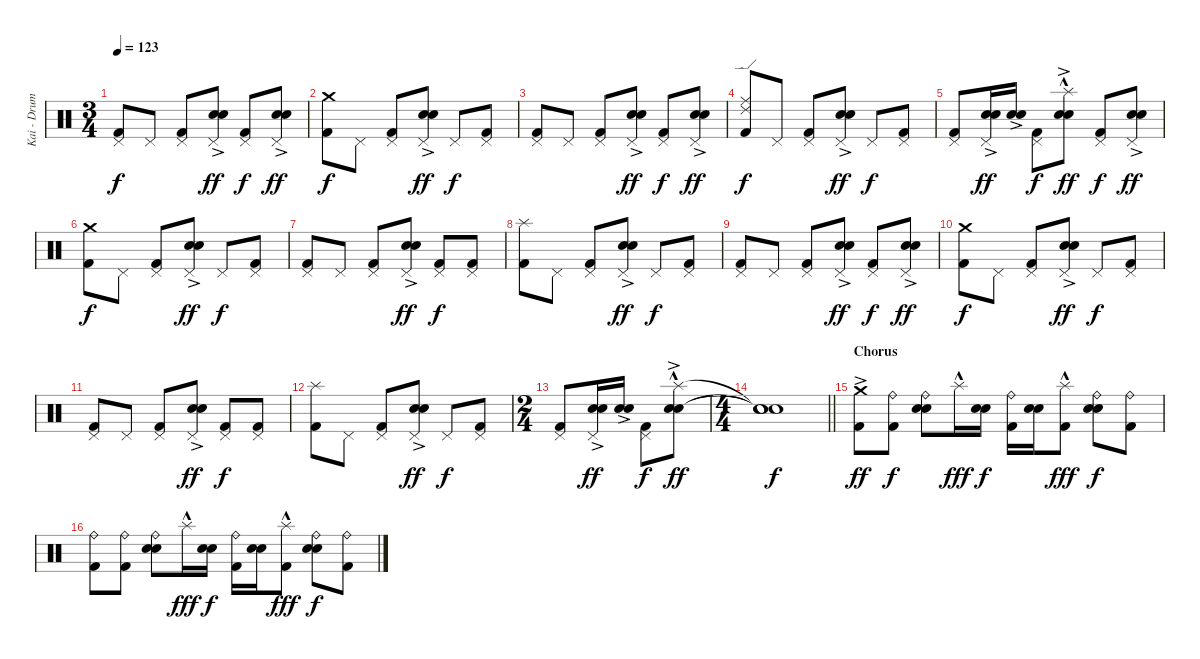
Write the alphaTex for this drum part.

\track ("Kai - Drums" "Kai - Drum") {instrument percussion}
\staff {score}
\articulation defaults
\ts (3 4)
\tempo 123
\clef neutral
\ks c
("Pedal Hi-Hat (hit)" "Kick (hit) 2").8{dy f} "Pedal Hi-Hat (hit)".8 ("Pedal Hi-Hat (hit)" "Kick (hit) 2").8 ("Pedal Hi-Hat (hit)" "Electric Snare (hit)"{ac} "Snare (hit) 2").8{dy ff} ("Pedal Hi-Hat (hit)" "Kick (hit) 2").8{dy f} ("Pedal Hi-Hat (hit)" "Electric Snare (hit)"{ac} "Snare (hit) 2").8{dy ff} |
("Crash medium (hit)" "Kick (hit) 2").8{dy f} "Pedal Hi-Hat (hit)".8 ("Pedal Hi-Hat (hit)" "Kick (hit) 2").8 ("Pedal Hi-Hat (hit)" "Electric Snare (hit)"{ac} "Snare (hit) 2").8{dy ff} "Pedal Hi-Hat (hit)".8{dy f} ("Pedal Hi-Hat (hit)" "Kick (hit) 2").8 |
("Pedal Hi-Hat (hit)" "Kick (hit) 2").8 "Pedal Hi-Hat (hit)".8 ("Pedal Hi-Hat (hit)" "Kick (hit) 2").8 ("Pedal Hi-Hat (hit)" "Electric Snare (hit)"{ac} "Snare (hit) 2").8{dy ff} ("Pedal Hi-Hat (hit)" "Kick (hit) 2").8{dy f} ("Pedal Hi-Hat (hit)" "Electric Snare (hit)"{ac} "Snare (hit) 2").8{dy ff} |
("Ride (edge) 2" "Ride (middle)" "Kick (hit) 2").8{dy f} "Pedal Hi-Hat (hit)".8 ("Pedal Hi-Hat (hit)" "Kick (hit) 2").8 ("Pedal Hi-Hat (hit)" "Electric Snare (hit)"{ac} "Snare (hit) 2").8{dy ff} "Pedal Hi-Hat (hit)".8{dy f} ("Pedal Hi-Hat (hit)" "Kick (hit) 2").8 |
("Pedal Hi-Hat (hit)" "Kick (hit) 2").8 ("Pedal Hi-Hat (hit)" "Electric Snare (hit)"{ac} "Snare (hit) 2").16{dy ff} ("Electric Snare (hit)"{ac} "Snare (hit) 2").16 ("Pedal Hi-Hat (hit)" "Kick (hit) 2").8{dy f} ("Splash (hit)"{hac} "Electric Snare (hit)"{ac} "Snare (hit) 2").8{dy ff} ("Pedal Hi-Hat (hit)" "Kick (hit) 2").8{dy f} ("Pedal Hi-Hat (hit)" "Electric Snare (hit)"{ac} "Snare (hit) 2").8{dy ff} |
("Crash medium (hit)" "Kick (hit) 2").8{dy f} "Pedal Hi-Hat (hit)".8 ("Pedal Hi-Hat (hit)" "Kick (hit) 2").8 ("Pedal Hi-Hat (hit)" "Electric Snare (hit)"{ac} "Snare (hit) 2").8{dy ff} "Pedal Hi-Hat (hit)".8{dy f} ("Pedal Hi-Hat (hit)" "Kick (hit) 2").8 |
("Pedal Hi-Hat (hit)" "Kick (hit) 2").8 "Pedal Hi-Hat (hit)".8 ("Pedal Hi-Hat (hit)" "Kick (hit) 2").8 ("Pedal Hi-Hat (hit)" "Electric Snare (hit)"{ac} "Snare (hit) 2").8{dy ff} ("Pedal Hi-Hat (hit)" "Kick (hit) 2").8{dy f} ("Pedal Hi-Hat (hit)" "Kick (hit) 2").8 |
("Splash (hit)" "Kick (hit) 2").8 "Pedal Hi-Hat (hit)".8 ("Pedal Hi-Hat (hit)" "Kick (hit) 2").8 ("Pedal Hi-Hat (hit)" "Electric Snare (hit)"{ac} "Snare (hit) 2").8{dy ff} "Pedal Hi-Hat (hit)".8{dy f} ("Pedal Hi-Hat (hit)" "Kick (hit) 2").8 |
("Pedal Hi-Hat (hit)" "Kick (hit) 2").8 "Pedal Hi-Hat (hit)".8 ("Pedal Hi-Hat (hit)" "Kick (hit) 2").8 ("Pedal Hi-Hat (hit)" "Electric Snare (hit)"{ac} "Snare (hit) 2").8{dy ff} ("Pedal Hi-Hat (hit)" "Kick (hit) 2").8{dy f} ("Pedal Hi-Hat (hit)" "Electric Snare (hit)"{ac} "Snare (hit) 2").8{dy ff} |
("Crash medium (hit)" "Kick (hit) 2").8{dy f} "Pedal Hi-Hat (hit)".8 ("Pedal Hi-Hat (hit)" "Kick (hit) 2").8 ("Pedal Hi-Hat (hit)" "Electric Snare (hit)"{ac} "Snare (hit) 2").8{dy ff} "Pedal Hi-Hat (hit)".8{dy f} ("Pedal Hi-Hat (hit)" "Kick (hit) 2").8 |
("Pedal Hi-Hat (hit)" "Kick (hit) 2").8 "Pedal Hi-Hat (hit)".8 ("Pedal Hi-Hat (hit)" "Kick (hit) 2").8 ("Pedal Hi-Hat (hit)" "Electric Snare (hit)"{ac} "Snare (hit) 2").8{dy ff} ("Pedal Hi-Hat (hit)" "Kick (hit) 2").8{dy f} ("Pedal Hi-Hat (hit)" "Kick (hit) 2").8 |
("Splash (hit)" "Kick (hit) 2").8 "Pedal Hi-Hat (hit)".8 ("Pedal Hi-Hat (hit)" "Kick (hit) 2").8 ("Pedal Hi-Hat (hit)" "Electric Snare (hit)"{ac} "Snare (hit) 2").8{dy ff} "Pedal Hi-Hat (hit)".8{dy f} ("Pedal Hi-Hat (hit)" "Kick (hit) 2").8 |
\ts (2 4)
("Pedal Hi-Hat (hit)" "Kick (hit) 2").8 ("Pedal Hi-Hat (hit)" "Electric Snare (hit)"{ac} "Snare (hit) 2").16{dy ff} ("Electric Snare (hit)"{ac} "Snare (hit) 2").16 ("Pedal Hi-Hat (hit)" "Kick (hit) 2").8{dy f} ("Splash (hit)"{hac} "Electric Snare (hit)"{ac} "Snare (hit) 2").8{dy ff} |
\ts (4 4)
\barLineRight lightlight
("Snare (hit)"{t} "Snare (hit)"{t} "Snare (hit)"{t}).1{dy f} |
\section ("" "Chorus")
("Crash medium (hit)"{ac} "Kick (hit) 2").8{dy ff} ("Ride (bell)" "Kick (hit) 2").8{dy f} ("Ride (bell)" "Electric Snare (hit)" "Snare (hit) 2").8 "Splash (hit)"{hac}.16{dy fff} ("Electric Snare (hit)" "Snare (hit) 2").16{dy f} ("Ride (bell)" "Kick (hit) 2").16 ("Electric Snare (hit)" "Snare (hit) 2").16 ("Splash (hit)"{hac} "Kick (hit) 2").8{dy fff} ("Ride (bell)" "Electric Snare (hit)" "Snare (hit) 2").8{dy f} ("Ride (bell)" "Kick (hit) 2").8 |
("Ride (bell)" "Kick (hit) 2").8 ("Ride (bell)" "Kick (hit) 2").8 ("Ride (bell)" "Electric Snare (hit)" "Snare (hit) 2").8 "Splash (hit)"{hac}.16{dy fff} ("Electric Snare (hit)" "Snare (hit) 2").16{dy f} ("Ride (bell)" "Kick (hit) 2").16 ("Electric Snare (hit)" "Snare (hit) 2").16 ("Splash (hit)"{hac} "Kick (hit) 2").8{dy fff} ("Ride (bell)" "Electric Snare (hit)" "Snare (hit) 2").8{dy f} ("Ride (bell)" "Kick (hit) 2").8
